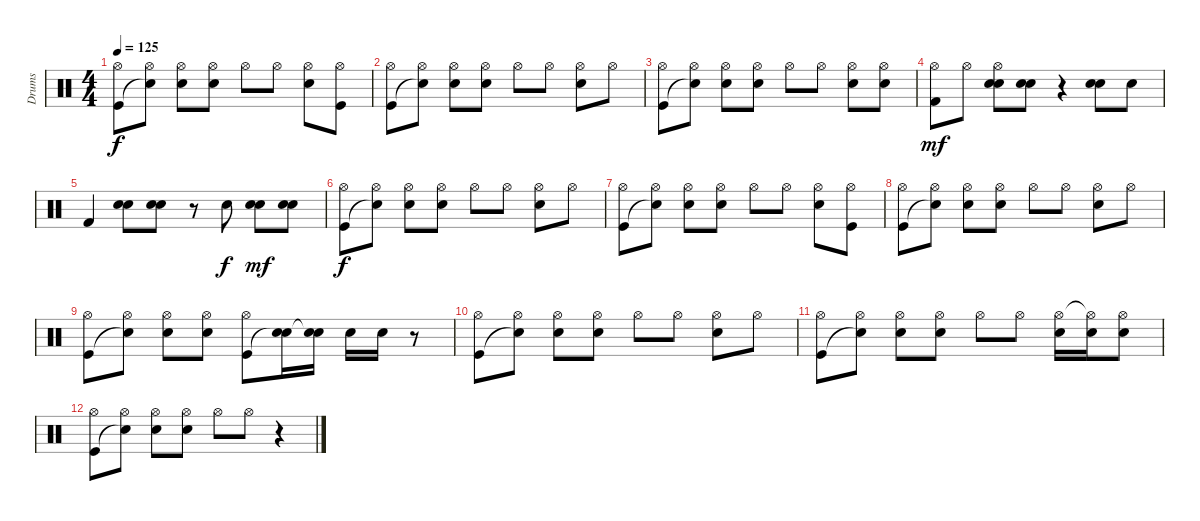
\track ("Drums" "Drums") {instrument percussion}
\staff {score}
\articulation defaults
\ts (4 4)
\tempo 125
\clef neutral
\ks c
("Hi-Hat (open)" "Kick (hit)").8{dy f} ("Hi-Hat (open)" "Snare (hit)"{t}).8 ("Hi-Hat (open)" "Snare (hit) 2").8 ("Hi-Hat (open)" "Snare (hit) 2").8 "Hi-Hat (open)".8 "Hi-Hat (open)".8 ("Hi-Hat (open)" "Snare (hit) 2").8 ("Hi-Hat (open)" "Kick (hit)").8 |
("Hi-Hat (open)" "Kick (hit)").8 ("Hi-Hat (open)" "Snare (hit)"{t}).8 ("Hi-Hat (open)" "Snare (hit) 2").8 ("Hi-Hat (open)" "Snare (hit) 2").8 "Hi-Hat (open)".8 "Hi-Hat (open)".8 ("Hi-Hat (open)" "Snare (hit) 2").8 "Hi-Hat (open)".8 |
("Hi-Hat (open)" "Kick (hit)").8 ("Hi-Hat (open)" "Snare (hit)"{t}).8 ("Hi-Hat (open)" "Snare (hit) 2").8 ("Hi-Hat (open)" "Snare (hit) 2").8 "Hi-Hat (open)".8 "Hi-Hat (open)".8 ("Hi-Hat (open)" "Snare (hit) 2").8 ("Hi-Hat (open)" "Snare (hit) 2").8 |
("Hi-Hat (open)" "Kick (hit) 2").8{dy mf} "Hi-Hat (open)".8 ("Hi-Hat (open)" "Snare (hit) 2" "Hand Clap (hit)").8 ("Snare (hit) 2" "Hand Clap (hit)").8 r.4 ("Snare (hit) 2" "Hand Clap (hit)").8 "Hand Clap (hit)".8 |
"Kick (hit) 2".4 ("Snare (hit) 2" "Hand Clap (hit)").8 ("Snare (hit) 2" "Hand Clap (hit)").8 r.8 "Snare (hit) 2".8{dy f} ("Snare (hit) 2" "Hand Clap (hit)").8{dy mf} ("Snare (hit) 2" "Hand Clap (hit)").8 |
("Hi-Hat (open)" "Kick (hit)").8{dy f} ("Hi-Hat (open)" "Snare (hit)"{t}).8 ("Hi-Hat (open)" "Snare (hit) 2").8 ("Hi-Hat (open)" "Snare (hit) 2").8 "Hi-Hat (open)".8 "Hi-Hat (open)".8 ("Hi-Hat (open)" "Snare (hit) 2").8 "Hi-Hat (open)".8 |
("Hi-Hat (open)" "Kick (hit)").8 ("Hi-Hat (open)" "Snare (hit)"{t}).8 ("Hi-Hat (open)" "Snare (hit) 2").8 ("Hi-Hat (open)" "Snare (hit) 2").8 "Hi-Hat (open)".8 "Hi-Hat (open)".8 ("Hi-Hat (open)" "Snare (hit) 2").8 ("Hi-Hat (open)" "Kick (hit)").8 |
("Hi-Hat (open)" "Kick (hit)").8 ("Hi-Hat (open)" "Snare (hit)"{t}).8 ("Hi-Hat (open)" "Snare (hit) 2").8 ("Hi-Hat (open)" "Snare (hit) 2").8 "Hi-Hat (open)".8 "Hi-Hat (open)".8 ("Hi-Hat (open)" "Snare (hit) 2").8 "Hi-Hat (open)".8 |
("Hi-Hat (open)" "Kick (hit)").8 ("Hi-Hat (open)" "Snare (hit)"{t}).8 ("Hi-Hat (open)" "Snare (hit) 2").8 ("Hi-Hat (open)" "Snare (hit) 2").8 ("Hi-Hat (open)" "Kick (hit)").8 ("Snare (hit) 2" "Snare (hit)"{t}).16 ("Snare (hit) 2" "Snare (hit)"{t}).16 "Snare (hit) 2".16 "Snare (hit) 2".16 r.8 |
("Hi-Hat (open)" "Kick (hit)").8 ("Hi-Hat (open)" "Snare (hit)"{t}).8 ("Hi-Hat (open)" "Snare (hit) 2").8 ("Hi-Hat (open)" "Snare (hit) 2").8 "Hi-Hat (open)".8 "Hi-Hat (open)".8 ("Hi-Hat (open)" "Snare (hit) 2").8 "Hi-Hat (open)".8 |
("Hi-Hat (open)" "Kick (hit)").8 ("Hi-Hat (open)" "Snare (hit)"{t}).8 ("Hi-Hat (open)" "Snare (hit) 2").8 ("Hi-Hat (open)" "Snare (hit) 2").8 "Hi-Hat (open)".8 "Hi-Hat (open)".8 ("Hi-Hat (open)" "Snare (hit) 2").16 ("Hi-Hat (open)"{t} "Snare (hit) 2").16 ("Hi-Hat (open)" "Snare (hit) 2").8 |
("Hi-Hat (open)" "Kick (hit)").8 ("Hi-Hat (open)" "Snare (hit)"{t}).8 ("Hi-Hat (open)" "Snare (hit) 2").8 ("Hi-Hat (open)" "Snare (hit) 2").8 "Hi-Hat (open)".8 "Hi-Hat (open)".8 r.4
